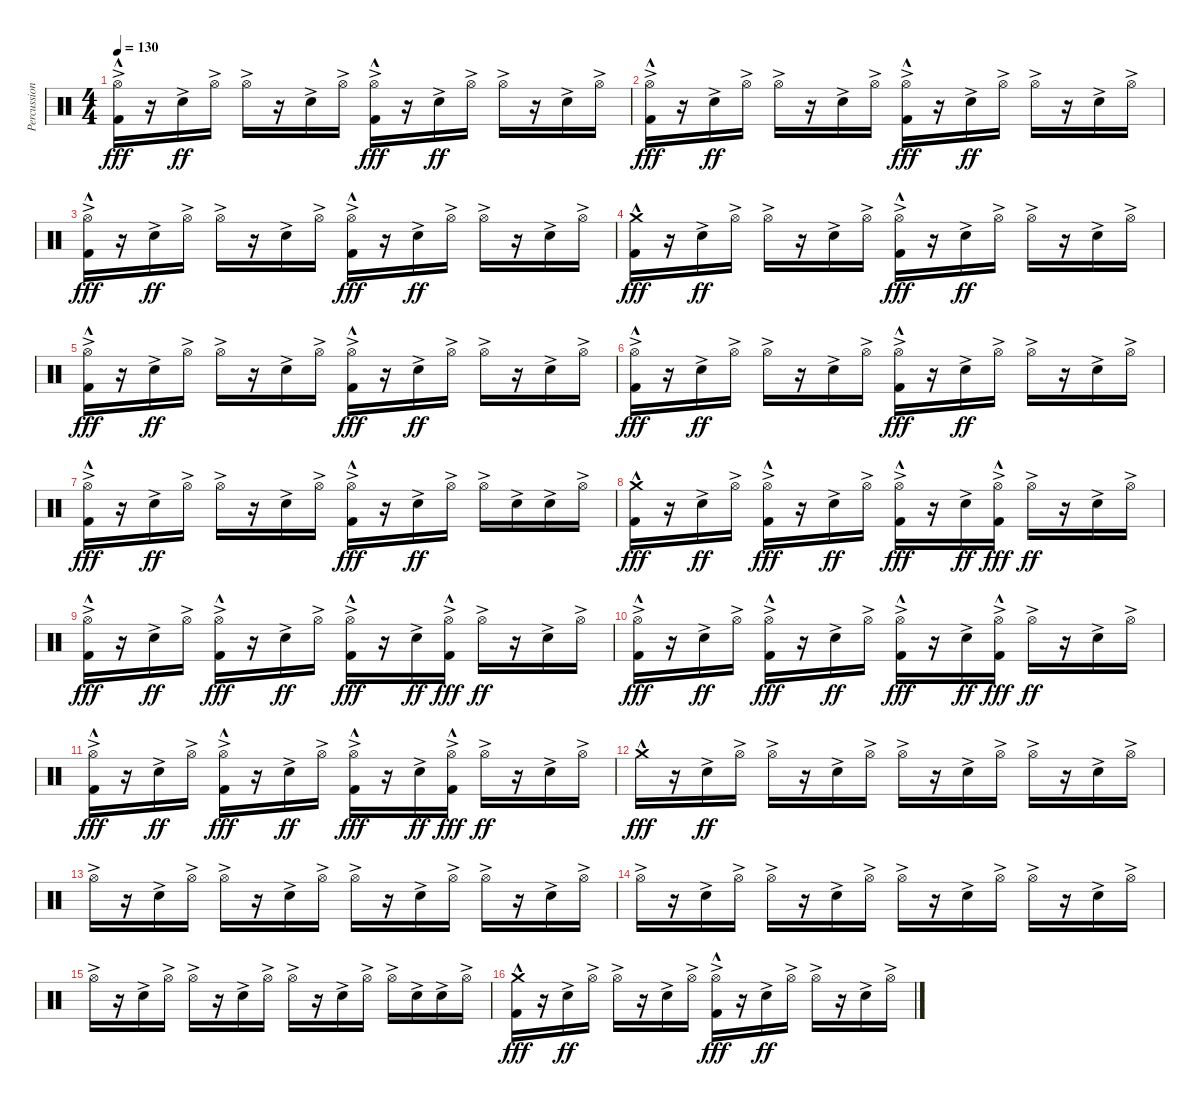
\track ("Percussion" "Percussion") {instrument percussion}
\staff {score}
\articulation defaults
\ts (4 4)
\tempo 130
\clef neutral
\ks c
("Hi-Hat (open)"{ac} "Kick (hit) 2"{hac}).16{dy fff} r.16 "Snare (hit) 2"{ac}.16{dy ff} "Hi-Hat (open)"{ac}.16 "Hi-Hat (open)"{ac}.16 r.16 "Snare (hit) 2"{ac}.16 "Hi-Hat (open)"{ac}.16 ("Hi-Hat (open)"{ac} "Kick (hit) 2"{hac}).16{dy fff} r.16 "Snare (hit) 2"{ac}.16{dy ff} "Hi-Hat (open)"{ac}.16 "Hi-Hat (open)"{ac}.16 r.16 "Snare (hit) 2"{ac}.16 "Hi-Hat (open)"{ac}.16 |
("Hi-Hat (open)"{ac} "Kick (hit) 2"{hac}).16{dy fff} r.16 "Snare (hit) 2"{ac}.16{dy ff} "Hi-Hat (open)"{ac}.16 "Hi-Hat (open)"{ac}.16 r.16 "Snare (hit) 2"{ac}.16 "Hi-Hat (open)"{ac}.16 ("Hi-Hat (open)"{ac} "Kick (hit) 2"{hac}).16{dy fff} r.16 "Snare (hit) 2"{ac}.16{dy ff} "Hi-Hat (open)"{ac}.16 "Hi-Hat (open)"{ac}.16 r.16 "Snare (hit) 2"{ac}.16 "Hi-Hat (open)"{ac}.16 |
("Hi-Hat (open)"{ac} "Kick (hit) 2"{hac}).16{dy fff} r.16 "Snare (hit) 2"{ac}.16{dy ff} "Hi-Hat (open)"{ac}.16 "Hi-Hat (open)"{ac}.16 r.16 "Snare (hit) 2"{ac}.16 "Hi-Hat (open)"{ac}.16 ("Hi-Hat (open)"{ac} "Kick (hit) 2"{hac}).16{dy fff} r.16 "Snare (hit) 2"{ac}.16{dy ff} "Hi-Hat (open)"{ac}.16 "Hi-Hat (open)"{ac}.16 r.16 "Snare (hit) 2"{ac}.16 "Hi-Hat (open)"{ac}.16 |
("Crash medium (hit)"{hac} "Kick (hit) 2"{hac}).16{dy fff} r.16 "Snare (hit) 2"{ac}.16{dy ff} "Hi-Hat (open)"{ac}.16 "Hi-Hat (open)"{ac}.16 r.16 "Snare (hit) 2"{ac}.16 "Hi-Hat (open)"{ac}.16 ("Hi-Hat (open)"{ac} "Kick (hit) 2"{hac}).16{dy fff} r.16 "Snare (hit) 2"{ac}.16{dy ff} "Hi-Hat (open)"{ac}.16 "Hi-Hat (open)"{ac}.16 r.16 "Snare (hit) 2"{ac}.16 "Hi-Hat (open)"{ac}.16 |
("Hi-Hat (open)"{ac} "Kick (hit) 2"{hac}).16{dy fff} r.16 "Snare (hit) 2"{ac}.16{dy ff} "Hi-Hat (open)"{ac}.16 "Hi-Hat (open)"{ac}.16 r.16 "Snare (hit) 2"{ac}.16 "Hi-Hat (open)"{ac}.16 ("Hi-Hat (open)"{ac} "Kick (hit) 2"{hac}).16{dy fff} r.16 "Snare (hit) 2"{ac}.16{dy ff} "Hi-Hat (open)"{ac}.16 "Hi-Hat (open)"{ac}.16 r.16 "Snare (hit) 2"{ac}.16 "Hi-Hat (open)"{ac}.16 |
("Hi-Hat (open)"{ac} "Kick (hit) 2"{hac}).16{dy fff} r.16 "Snare (hit) 2"{ac}.16{dy ff} "Hi-Hat (open)"{ac}.16 "Hi-Hat (open)"{ac}.16 r.16 "Snare (hit) 2"{ac}.16 "Hi-Hat (open)"{ac}.16 ("Hi-Hat (open)"{ac} "Kick (hit) 2"{hac}).16{dy fff} r.16 "Snare (hit) 2"{ac}.16{dy ff} "Hi-Hat (open)"{ac}.16 "Hi-Hat (open)"{ac}.16 r.16 "Snare (hit) 2"{ac}.16 "Hi-Hat (open)"{ac}.16 |
("Hi-Hat (open)"{ac} "Kick (hit) 2"{hac}).16{dy fff} r.16 "Snare (hit) 2"{ac}.16{dy ff} "Hi-Hat (open)"{ac}.16 "Hi-Hat (open)"{ac}.16 r.16 "Snare (hit) 2"{ac}.16 "Hi-Hat (open)"{ac}.16 ("Hi-Hat (open)"{ac} "Kick (hit) 2"{hac}).16{dy fff} r.16 "Snare (hit) 2"{ac}.16{dy ff} "Hi-Hat (open)"{ac}.16 "Hi-Hat (open)"{ac}.16 "Snare (hit) 2"{ac}.16 "Snare (hit) 2"{ac}.16 "Hi-Hat (open)"{ac}.16 |
("Crash medium (hit)"{hac} "Kick (hit) 2"{hac}).16{dy fff} r.16 "Snare (hit) 2"{ac}.16{dy ff} "Hi-Hat (open)"{ac}.16 ("Hi-Hat (open)"{ac} "Kick (hit) 2"{hac}).16{dy fff} r.16 "Snare (hit) 2"{ac}.16{dy ff} "Hi-Hat (open)"{ac}.16 ("Hi-Hat (open)"{ac} "Kick (hit) 2"{hac}).16{dy fff} r.16 "Snare (hit) 2"{ac}.16{dy ff} ("Hi-Hat (open)"{ac} "Kick (hit) 2"{hac}).16{dy fff} "Hi-Hat (open)"{ac}.16{dy ff} r.16 "Snare (hit) 2"{ac}.16 "Hi-Hat (open)"{ac}.16 |
("Hi-Hat (open)"{ac} "Kick (hit) 2"{hac}).16{dy fff} r.16 "Snare (hit) 2"{ac}.16{dy ff} "Hi-Hat (open)"{ac}.16 ("Hi-Hat (open)"{ac} "Kick (hit) 2"{hac}).16{dy fff} r.16 "Snare (hit) 2"{ac}.16{dy ff} "Hi-Hat (open)"{ac}.16 ("Hi-Hat (open)"{ac} "Kick (hit) 2"{hac}).16{dy fff} r.16 "Snare (hit) 2"{ac}.16{dy ff} ("Hi-Hat (open)"{ac} "Kick (hit) 2"{hac}).16{dy fff} "Hi-Hat (open)"{ac}.16{dy ff} r.16 "Snare (hit) 2"{ac}.16 "Hi-Hat (open)"{ac}.16 |
("Hi-Hat (open)"{ac} "Kick (hit) 2"{hac}).16{dy fff} r.16 "Snare (hit) 2"{ac}.16{dy ff} "Hi-Hat (open)"{ac}.16 ("Hi-Hat (open)"{ac} "Kick (hit) 2"{hac}).16{dy fff} r.16 "Snare (hit) 2"{ac}.16{dy ff} "Hi-Hat (open)"{ac}.16 ("Hi-Hat (open)"{ac} "Kick (hit) 2"{hac}).16{dy fff} r.16 "Snare (hit) 2"{ac}.16{dy ff} ("Hi-Hat (open)"{ac} "Kick (hit) 2"{hac}).16{dy fff} "Hi-Hat (open)"{ac}.16{dy ff} r.16 "Snare (hit) 2"{ac}.16 "Hi-Hat (open)"{ac}.16 |
("Hi-Hat (open)"{ac} "Kick (hit) 2"{hac}).16{dy fff} r.16 "Snare (hit) 2"{ac}.16{dy ff} "Hi-Hat (open)"{ac}.16 ("Hi-Hat (open)"{ac} "Kick (hit) 2"{hac}).16{dy fff} r.16 "Snare (hit) 2"{ac}.16{dy ff} "Hi-Hat (open)"{ac}.16 ("Hi-Hat (open)"{ac} "Kick (hit) 2"{hac}).16{dy fff} r.16 "Snare (hit) 2"{ac}.16{dy ff} ("Hi-Hat (open)"{ac} "Kick (hit) 2"{hac}).16{dy fff} "Hi-Hat (open)"{ac}.16{dy ff} r.16 "Snare (hit) 2"{ac}.16 "Hi-Hat (open)"{ac}.16 |
"Crash medium (hit)"{hac}.16{dy fff} r.16 "Snare (hit) 2"{ac}.16{dy ff} "Hi-Hat (open)"{ac}.16 "Hi-Hat (open)"{ac}.16 r.16 "Snare (hit) 2"{ac}.16 "Hi-Hat (open)"{ac}.16 "Hi-Hat (open)"{ac}.16 r.16 "Snare (hit) 2"{ac}.16 "Hi-Hat (open)"{ac}.16 "Hi-Hat (open)"{ac}.16 r.16 "Snare (hit) 2"{ac}.16 "Hi-Hat (open)"{ac}.16 |
"Hi-Hat (open)"{ac}.16 r.16 "Snare (hit) 2"{ac}.16 "Hi-Hat (open)"{ac}.16 "Hi-Hat (open)"{ac}.16 r.16 "Snare (hit) 2"{ac}.16 "Hi-Hat (open)"{ac}.16 "Hi-Hat (open)"{ac}.16 r.16 "Snare (hit) 2"{ac}.16 "Hi-Hat (open)"{ac}.16 "Hi-Hat (open)"{ac}.16 r.16 "Snare (hit) 2"{ac}.16 "Hi-Hat (open)"{ac}.16 |
"Hi-Hat (open)"{ac}.16 r.16 "Snare (hit) 2"{ac}.16 "Hi-Hat (open)"{ac}.16 "Hi-Hat (open)"{ac}.16 r.16 "Snare (hit) 2"{ac}.16 "Hi-Hat (open)"{ac}.16 "Hi-Hat (open)"{ac}.16 r.16 "Snare (hit) 2"{ac}.16 "Hi-Hat (open)"{ac}.16 "Hi-Hat (open)"{ac}.16 r.16 "Snare (hit) 2"{ac}.16 "Hi-Hat (open)"{ac}.16 |
"Hi-Hat (open)"{ac}.16 r.16 "Snare (hit) 2"{ac}.16 "Hi-Hat (open)"{ac}.16 "Hi-Hat (open)"{ac}.16 r.16 "Snare (hit) 2"{ac}.16 "Hi-Hat (open)"{ac}.16 "Hi-Hat (open)"{ac}.16 r.16 "Snare (hit) 2"{ac}.16 "Hi-Hat (open)"{ac}.16 "Hi-Hat (open)"{ac}.16 "Snare (hit) 2"{ac}.16 "Snare (hit) 2"{ac}.16 "Hi-Hat (open)"{ac}.16 |
("Crash medium (hit)"{hac} "Kick (hit) 2"{hac}).16{dy fff} r.16 "Snare (hit) 2"{ac}.16{dy ff} "Hi-Hat (open)"{ac}.16 "Hi-Hat (open)"{ac}.16 r.16 "Snare (hit) 2"{ac}.16 "Hi-Hat (open)"{ac}.16 ("Hi-Hat (open)"{ac} "Kick (hit) 2"{hac}).16{dy fff} r.16 "Snare (hit) 2"{ac}.16{dy ff} "Hi-Hat (open)"{ac}.16 "Hi-Hat (open)"{ac}.16 r.16 "Snare (hit) 2"{ac}.16 "Hi-Hat (open)"{ac}.16
